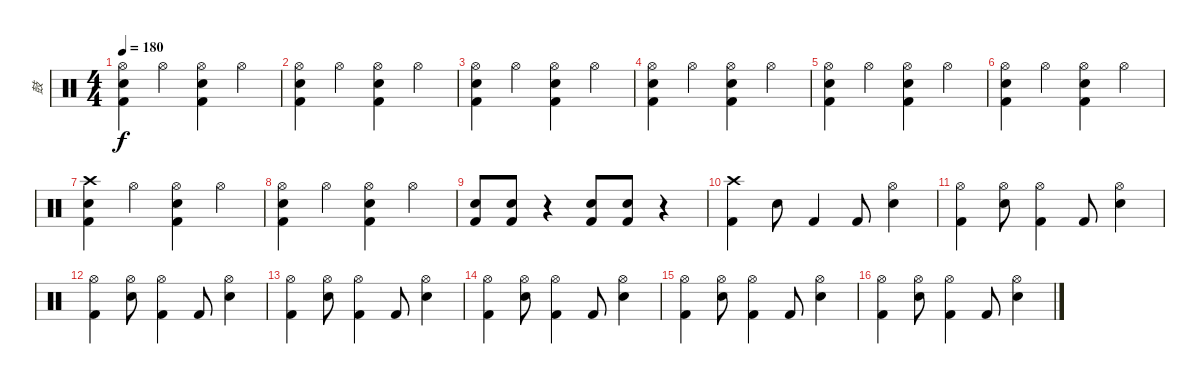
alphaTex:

\track ("鼓" "鼓") {instrument percussion}
\staff {score}
\articulation defaults
\ts (4 4)
\tempo 180
\clef neutral
\ks c
("Hi-Hat (open)" "Snare (hit) 2" "Kick (hit) 2").4{dy f} "Hi-Hat (open)".4 ("Hi-Hat (open)" "Snare (hit) 2" "Kick (hit) 2").4 "Hi-Hat (open)".4 |
("Hi-Hat (open)" "Snare (hit) 2" "Kick (hit) 2").4 "Hi-Hat (open)".4 ("Hi-Hat (open)" "Snare (hit) 2" "Kick (hit) 2").4 "Hi-Hat (open)".4 |
("Hi-Hat (open)" "Snare (hit) 2" "Kick (hit) 2").4 "Hi-Hat (open)".4 ("Hi-Hat (open)" "Snare (hit) 2" "Kick (hit) 2").4 "Hi-Hat (open)".4 |
("Hi-Hat (open)" "Snare (hit) 2" "Kick (hit) 2").4 "Hi-Hat (open)".4 ("Hi-Hat (open)" "Snare (hit) 2" "Kick (hit) 2").4 "Hi-Hat (open)".4 |
("Hi-Hat (open)" "Snare (hit) 2" "Kick (hit) 2").4 "Hi-Hat (open)".4 ("Hi-Hat (open)" "Snare (hit) 2" "Kick (hit) 2").4 "Hi-Hat (open)".4 |
("Hi-Hat (open)" "Snare (hit) 2" "Kick (hit) 2").4 "Hi-Hat (open)".4 ("Hi-Hat (open)" "Snare (hit) 2" "Kick (hit) 2").4 "Hi-Hat (open)".4 |
("Crash high (hit)" "Snare (hit) 2" "Kick (hit) 2").4 "Hi-Hat (open)".4 ("Hi-Hat (open)" "Snare (hit) 2" "Kick (hit) 2").4 "Hi-Hat (open)".4 |
("Hi-Hat (open)" "Snare (hit) 2" "Kick (hit) 2").4 "Hi-Hat (open)".4 ("Hi-Hat (open)" "Snare (hit) 2" "Kick (hit) 2").4 "Hi-Hat (open)".4 |
("Snare (hit) 2" "Kick (hit) 2").8 ("Snare (hit) 2" "Kick (hit) 2").8 r.4 ("Snare (hit) 2" "Kick (hit) 2").8 ("Snare (hit) 2" "Kick (hit) 2").8 r.4 |
("Crash high (hit)" "Kick (hit) 2").4 "Snare (hit) 2".8 "Kick (hit) 2".4 "Kick (hit) 2".8 ("Hi-Hat (open)" "Snare (hit) 2").4 |
("Hi-Hat (open)" "Kick (hit) 2").4 ("Hi-Hat (open)" "Snare (hit) 2").8 ("Hi-Hat (open)" "Kick (hit) 2").4 "Kick (hit) 2".8 ("Hi-Hat (open)" "Snare (hit) 2").4 |
("Hi-Hat (open)" "Kick (hit) 2").4 ("Hi-Hat (open)" "Snare (hit) 2").8 ("Hi-Hat (open)" "Kick (hit) 2").4 "Kick (hit) 2".8 ("Hi-Hat (open)" "Snare (hit) 2").4 |
("Hi-Hat (open)" "Kick (hit) 2").4 ("Hi-Hat (open)" "Snare (hit) 2").8 ("Hi-Hat (open)" "Kick (hit) 2").4 "Kick (hit) 2".8 ("Hi-Hat (open)" "Snare (hit) 2").4 |
("Hi-Hat (open)" "Kick (hit) 2").4 ("Hi-Hat (open)" "Snare (hit) 2").8 ("Hi-Hat (open)" "Kick (hit) 2").4 "Kick (hit) 2".8 ("Hi-Hat (open)" "Snare (hit) 2").4 |
("Hi-Hat (open)" "Kick (hit) 2").4 ("Hi-Hat (open)" "Snare (hit) 2").8 ("Hi-Hat (open)" "Kick (hit) 2").4 "Kick (hit) 2".8 ("Hi-Hat (open)" "Snare (hit) 2").4 |
("Hi-Hat (open)" "Kick (hit) 2").4 ("Hi-Hat (open)" "Snare (hit) 2").8 ("Hi-Hat (open)" "Kick (hit) 2").4 "Kick (hit) 2".8 ("Hi-Hat (open)" "Snare (hit) 2").4
